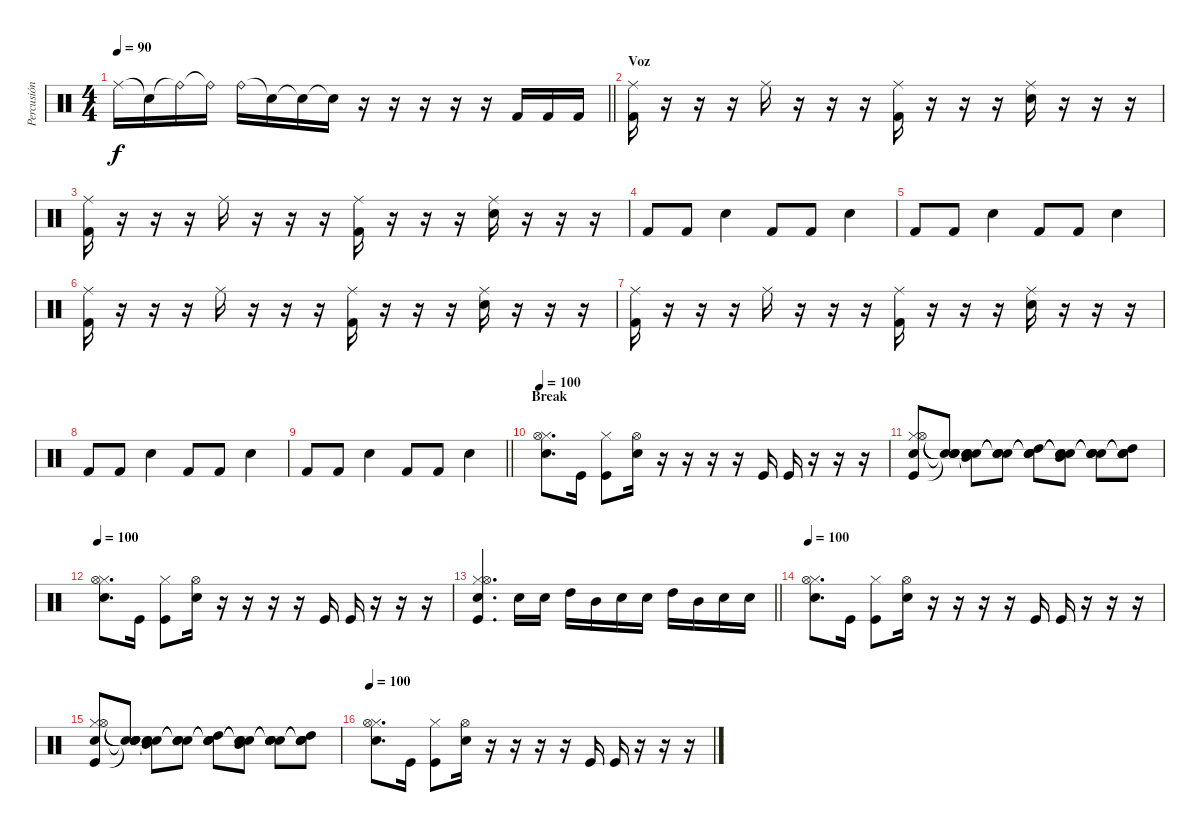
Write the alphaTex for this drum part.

\track ("Percusión" "Percusión") {instrument percussion}
\staff {score}
\articulation defaults
\ts (4 4)
\tempo 90
\clef neutral
\barLineRight lightlight
\ks c "Ride (middle)".16{dy f} "Snare (hit)"{t}.16 "Ride (bell)"{t}.16 "Ride (bell)"{t}.16 "Ride (bell)".16 "Snare (hit)"{t}.16 "Snare (hit)"{t}.16 "Snare (hit)"{t}.16
r.16 r.16 r.16 r.16 r.16 "Kick (hit) 2".16 "Kick (hit) 2".16 "Kick (hit) 2".16 |
\section ("" "Voz")
("Kick (hit) 2" "Ride (middle)").16 r.16 r.16 r.16 "Ride (middle)".16 r.16 r.16 r.16 ("Kick (hit) 2" "Ride (middle)").16 r.16 r.16 r.16 ("Electric Snare (hit)" "Ride (middle)").16 r.16 r.16 r.16 |
("Kick (hit) 2" "Ride (middle)").16 r.16 r.16 r.16 "Ride (middle)".16 r.16 r.16 r.16 ("Kick (hit) 2" "Ride (middle)").16 r.16 r.16 r.16 ("Electric Snare (hit)" "Ride (middle)").16 r.16 r.16 r.16 |
"Kick (hit) 2".8 "Kick (hit) 2".8 "Electric Snare (hit)".4 "Kick (hit) 2".8 "Kick (hit) 2".8 "Electric Snare (hit)".4 |
"Kick (hit) 2".8 "Kick (hit) 2".8 "Electric Snare (hit)".4 "Kick (hit) 2".8 "Kick (hit) 2".8 "Electric Snare (hit)".4 |
("Kick (hit) 2" "Ride (middle)").16 r.16 r.16 r.16 "Ride (middle)".16 r.16 r.16 r.16 ("Kick (hit) 2" "Ride (middle)").16 r.16 r.16 r.16 ("Electric Snare (hit)" "Ride (middle)").16 r.16 r.16 r.16 |
("Kick (hit) 2" "Ride (middle)").16 r.16 r.16 r.16 "Ride (middle)".16 r.16 r.16 r.16 ("Kick (hit) 2" "Ride (middle)").16 r.16 r.16 r.16 ("Electric Snare (hit)" "Ride (middle)").16 r.16 r.16 r.16 |
"Kick (hit) 2".8 "Kick (hit) 2".8 "Electric Snare (hit)".4 "Kick (hit) 2".8 "Kick (hit) 2".8 "Electric Snare (hit)".4 |
\barLineRight lightlight "Kick (hit) 2".8 "Kick (hit) 2".8 "Electric Snare (hit)".4 "Kick (hit) 2".8 "Kick (hit) 2".8 "Electric Snare (hit)".4
|
\section ("" "Break")
\tempo 100
("Hi-Hat (closed)" "Hi-Hat (open)" "Electric Snare (hit)").8{d} "Kick (hit)".16 ("Hi-Hat (closed)" "Kick (hit)").8 ("Hi-Hat (open)" "Electric Snare (hit)").16 r.16 r.16 r.16 r.16 "Kick (hit)".16 "Kick (hit)".16 r.16 r.16 r.16 |
("Hi-Hat (closed)" "Hi-Hat (open)" "Electric Snare (hit)" "Kick (hit)").8 ("Snare (hit)"{t} "Snare (hit)"{t} "Snare (hit)"{t} "Snare (hit)"{t}).8 ("Snare (hit)"{t} "Snare (hit)"{t} "Mid Tom (hit)" "Snare (hit)"{t}).8{volume 7} ("Snare (hit)"{t} "Snare (hit)"{t} "Snare (hit) 2" "Snare (hit)"{t}).8 ("Snare (hit)"{t} "Snare (hit)"{t} "High Tom (hit)" "Snare (hit)"{t}).8{volume 4} ("Snare (hit)"{t} "Snare (hit)"{t} "Mid Tom (hit)" "Snare (hit)"{t}).8 ("Snare (hit)"{t} "Snare (hit)"{t} "Electric Snare (hit)" "Snare (hit)"{t}).8{volume 1} ("Snare (hit)"{t} "Snare (hit)"{t} "High Tom (hit)" "Snare (hit)"{t}).8 |
\tempo 100
("Hi-Hat (closed)" "Hi-Hat (open)" "Electric Snare (hit)").8{d volume 13} "Kick (hit)".16 ("Hi-Hat (closed)" "Kick (hit)").8 ("Hi-Hat (open)" "Electric Snare (hit)").16 r.16 r.16 r.16 r.16 "Kick (hit)".16 "Kick (hit)".16 r.16 r.16 r.16 |
\barLineRight lightlight
("Hi-Hat (closed)" "Hi-Hat (open)" "Electric Snare (hit)" "Kick (hit)").4{d} "Snare (hit) 2".16 "Electric Snare (hit)".16 "High Tom (hit)".16 "Mid Tom (hit)".16 "Snare (hit) 2".16 "Electric Snare (hit)".16 "High Tom (hit)".16 "Mid Tom (hit)".16 "Snare (hit) 2".16 "Electric Snare (hit)".16 |
\tempo 100
("Hi-Hat (closed)" "Hi-Hat (open)" "Electric Snare (hit)").8{d} "Kick (hit)".16 ("Hi-Hat (closed)" "Kick (hit)").8 ("Hi-Hat (open)" "Electric Snare (hit)").16 r.16 r.16 r.16 r.16 "Kick (hit)".16 "Kick (hit)".16 r.16 r.16 r.16 |
("Hi-Hat (closed)" "Hi-Hat (open)" "Electric Snare (hit)" "Kick (hit)").8 ("Snare (hit)"{t} "Snare (hit)"{t} "Snare (hit)"{t} "Snare (hit)"{t}).8 ("Snare (hit)"{t} "Snare (hit)"{t} "Mid Tom (hit)" "Snare (hit)"{t}).8{volume 7} ("Snare (hit)"{t} "Snare (hit)"{t} "Snare (hit) 2" "Snare (hit)"{t}).8 ("Snare (hit)"{t} "Snare (hit)"{t} "High Tom (hit)" "Snare (hit)"{t}).8{volume 4} ("Snare (hit)"{t} "Snare (hit)"{t} "Mid Tom (hit)" "Snare (hit)"{t}).8 ("Snare (hit)"{t} "Snare (hit)"{t} "Electric Snare (hit)" "Snare (hit)"{t}).8{volume 1} ("Snare (hit)"{t} "Snare (hit)"{t} "High Tom (hit)" "Snare (hit)"{t}).8 |
\tempo 100
("Hi-Hat (closed)" "Hi-Hat (open)" "Electric Snare (hit)").8{d volume 13} "Kick (hit)".16 ("Hi-Hat (closed)" "Kick (hit)").8 ("Hi-Hat (open)" "Electric Snare (hit)").16 r.16 r.16 r.16 r.16 "Kick (hit)".16 "Kick (hit)".16 r.16 r.16 r.16
